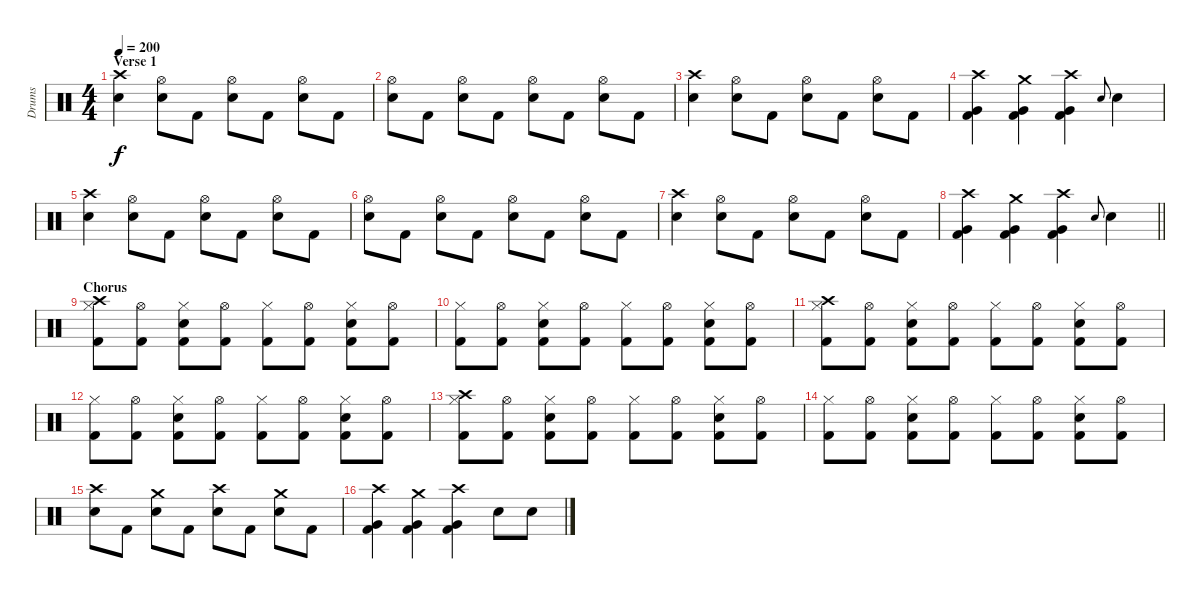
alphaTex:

\track ("Drums" "Drums") {instrument percussion}
\staff {score}
\articulation defaults
\ts (4 4)
\section ("" "Verse 1")
\tempo 200
\clef neutral
\ks c
("Crash high (hit)" "Snare (hit) 2").4{dy f} ("Hi-Hat (open)" "Snare (hit) 2").8 "Kick (hit) 2".8 ("Hi-Hat (open)" "Snare (hit) 2").8 "Kick (hit) 2".8 ("Hi-Hat (open)" "Snare (hit) 2").8 "Kick (hit) 2".8 |
("Hi-Hat (open)" "Snare (hit) 2").8 "Kick (hit) 2".8 ("Hi-Hat (open)" "Snare (hit) 2").8 "Kick (hit) 2".8 ("Hi-Hat (open)" "Snare (hit) 2").8 "Kick (hit) 2".8 ("Hi-Hat (open)" "Snare (hit) 2").8 "Kick (hit) 2".8 |
("Crash high (hit)" "Snare (hit) 2").4 ("Hi-Hat (open)" "Snare (hit) 2").8 "Kick (hit) 2".8 ("Hi-Hat (open)" "Snare (hit) 2").8 "Kick (hit) 2".8 ("Hi-Hat (open)" "Snare (hit) 2").8 "Kick (hit) 2".8 |
("Crash high (hit)" "Very Low Tom (hit)" "Kick (hit) 2").4 ("Crash medium (hit)" "Very Low Tom (hit)" "Kick (hit) 2").4 ("Crash high (hit)" "Very Low Tom (hit)" "Kick (hit) 2").4 "Snare (hit) 2".8{gr onbeat} "Snare (hit) 2".4 |
("Crash high (hit)" "Snare (hit) 2").4 ("Hi-Hat (open)" "Snare (hit) 2").8 "Kick (hit) 2".8 ("Hi-Hat (open)" "Snare (hit) 2").8 "Kick (hit) 2".8 ("Hi-Hat (open)" "Snare (hit) 2").8 "Kick (hit) 2".8 |
("Hi-Hat (open)" "Snare (hit) 2").8 "Kick (hit) 2".8 ("Hi-Hat (open)" "Snare (hit) 2").8 "Kick (hit) 2".8 ("Hi-Hat (open)" "Snare (hit) 2").8 "Kick (hit) 2".8 ("Hi-Hat (open)" "Snare (hit) 2").8 "Kick (hit) 2".8 |
("Crash high (hit)" "Snare (hit) 2").4 ("Hi-Hat (open)" "Snare (hit) 2").8 "Kick (hit) 2".8 ("Hi-Hat (open)" "Snare (hit) 2").8 "Kick (hit) 2".8 ("Hi-Hat (open)" "Snare (hit) 2").8 "Kick (hit) 2".8 |
\barLineRight lightlight
("Crash high (hit)" "Very Low Tom (hit)" "Kick (hit) 2").4 ("Crash medium (hit)" "Very Low Tom (hit)" "Kick (hit) 2").4 ("Crash high (hit)" "Very Low Tom (hit)" "Kick (hit) 2").4 "Snare (hit) 2".8{gr onbeat} "Snare (hit) 2".4 |
\section ("" "Chorus")
("Crash high (hit)" "Hi-Hat (closed)" "Kick (hit) 2").8 ("Hi-Hat (open)" "Kick (hit) 2").8 ("Hi-Hat (closed)" "Snare (hit) 2" "Kick (hit) 2").8 ("Hi-Hat (open)" "Kick (hit) 2").8 ("Hi-Hat (closed)" "Kick (hit) 2").8 ("Hi-Hat (open)" "Kick (hit) 2").8 ("Hi-Hat (closed)" "Snare (hit) 2" "Kick (hit) 2").8 ("Hi-Hat (open)" "Kick (hit) 2").8 |
("Hi-Hat (closed)" "Kick (hit) 2").8 ("Hi-Hat (open)" "Kick (hit) 2").8 ("Hi-Hat (closed)" "Snare (hit) 2" "Kick (hit) 2").8 ("Hi-Hat (open)" "Kick (hit) 2").8 ("Hi-Hat (closed)" "Kick (hit) 2").8 ("Hi-Hat (open)" "Kick (hit) 2").8 ("Hi-Hat (closed)" "Snare (hit) 2" "Kick (hit) 2").8 ("Hi-Hat (open)" "Kick (hit) 2").8 |
("Crash high (hit)" "Hi-Hat (closed)" "Kick (hit) 2").8 ("Hi-Hat (open)" "Kick (hit) 2").8 ("Hi-Hat (closed)" "Snare (hit) 2" "Kick (hit) 2").8 ("Hi-Hat (open)" "Kick (hit) 2").8 ("Hi-Hat (closed)" "Kick (hit) 2").8 ("Hi-Hat (open)" "Kick (hit) 2").8 ("Hi-Hat (closed)" "Snare (hit) 2" "Kick (hit) 2").8 ("Hi-Hat (open)" "Kick (hit) 2").8 |
("Hi-Hat (closed)" "Kick (hit) 2").8 ("Hi-Hat (open)" "Kick (hit) 2").8 ("Hi-Hat (closed)" "Snare (hit) 2" "Kick (hit) 2").8 ("Hi-Hat (open)" "Kick (hit) 2").8 ("Hi-Hat (closed)" "Kick (hit) 2").8 ("Hi-Hat (open)" "Kick (hit) 2").8 ("Hi-Hat (closed)" "Snare (hit) 2" "Kick (hit) 2").8 ("Hi-Hat (open)" "Kick (hit) 2").8 |
("Crash high (hit)" "Hi-Hat (closed)" "Kick (hit) 2").8 ("Hi-Hat (open)" "Kick (hit) 2").8 ("Hi-Hat (closed)" "Snare (hit) 2" "Kick (hit) 2").8 ("Hi-Hat (open)" "Kick (hit) 2").8 ("Hi-Hat (closed)" "Kick (hit) 2").8 ("Hi-Hat (open)" "Kick (hit) 2").8 ("Hi-Hat (closed)" "Snare (hit) 2" "Kick (hit) 2").8 ("Hi-Hat (open)" "Kick (hit) 2").8 |
("Hi-Hat (closed)" "Kick (hit) 2").8 ("Hi-Hat (open)" "Kick (hit) 2").8 ("Hi-Hat (closed)" "Snare (hit) 2" "Kick (hit) 2").8 ("Hi-Hat (open)" "Kick (hit) 2").8 ("Hi-Hat (closed)" "Kick (hit) 2").8 ("Hi-Hat (open)" "Kick (hit) 2").8 ("Hi-Hat (closed)" "Snare (hit) 2" "Kick (hit) 2").8 ("Hi-Hat (open)" "Kick (hit) 2").8 |
("Crash high (hit)" "Snare (hit) 2").8 "Kick (hit) 2".8 ("Crash medium (hit)" "Snare (hit) 2").8 "Kick (hit) 2".8 ("Crash high (hit)" "Snare (hit) 2").8 "Kick (hit) 2".8 ("Crash medium (hit)" "Snare (hit) 2").8 "Kick (hit) 2".8 |
("Crash high (hit)" "Very Low Tom (hit)" "Kick (hit) 2").4 ("Crash medium (hit)" "Very Low Tom (hit)" "Kick (hit) 2").4 ("Crash high (hit)" "Very Low Tom (hit)" "Kick (hit) 2").4 "Snare (hit) 2".8 "Snare (hit) 2".8
